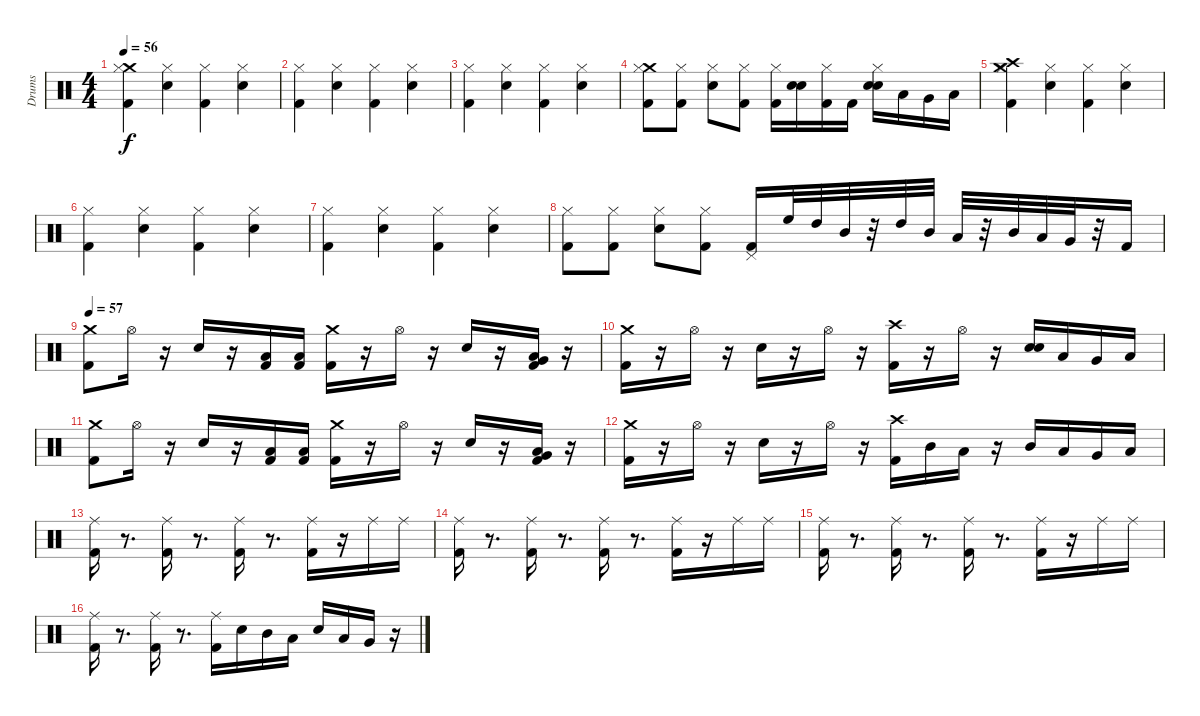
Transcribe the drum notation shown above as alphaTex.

\track ("Drums" "Drums") {instrument percussion}
\staff {score}
\articulation defaults
\ts (4 4)
\tempo 56
\clef neutral
\ks c
("Crash medium (hit)" "Hi-Hat (closed)" "Kick (hit) 2").4{dy f} ("Hi-Hat (closed)" "Snare (hit) 2").4 ("Hi-Hat (closed)" "Kick (hit) 2").4 ("Hi-Hat (closed)" "Snare (hit) 2").4 |
("Hi-Hat (closed)" "Kick (hit) 2").4 ("Hi-Hat (closed)" "Snare (hit) 2").4 ("Hi-Hat (closed)" "Kick (hit) 2").4 ("Hi-Hat (closed)" "Snare (hit) 2").4 |
("Hi-Hat (closed)" "Kick (hit) 2").4 ("Hi-Hat (closed)" "Snare (hit) 2").4 ("Hi-Hat (closed)" "Kick (hit) 2").4 ("Hi-Hat (closed)" "Snare (hit) 2").4 |
("Crash medium (hit)" "Kick (hit) 2" "Hi-Hat (closed)").8 ("Kick (hit) 2" "Hi-Hat (closed)").8 ("Snare (hit) 2" "Hi-Hat (closed)").8 ("Kick (hit) 2" "Hi-Hat (closed)").8 ("Hi-Hat (closed)" "Kick (hit) 2").16 ("Snare (hit) 2" "Electric Snare (hit)").16 ("Hi-Hat (closed)" "Kick (hit) 2").16 "Kick (hit) 2".16 ("Hi-Hat (closed)" "Snare (hit) 2" "Electric Snare (hit)").16 "Low Tom (hit)".16 "Very Low Tom (hit)".16 "Low Floor Tom (hit)".16 |
("Crash high (hit)" "Crash medium (hit)" "Hi-Hat (closed)" "Kick (hit) 2").4 ("Hi-Hat (closed)" "Snare (hit) 2").4 ("Hi-Hat (closed)" "Kick (hit) 2").4 ("Hi-Hat (closed)" "Snare (hit) 2").4 |
("Hi-Hat (closed)" "Kick (hit) 2").4 ("Hi-Hat (closed)" "Snare (hit) 2").4 ("Hi-Hat (closed)" "Kick (hit) 2").4 ("Hi-Hat (closed)" "Snare (hit) 2").4 |
("Hi-Hat (closed)" "Kick (hit) 2").4 ("Hi-Hat (closed)" "Snare (hit) 2").4 ("Hi-Hat (closed)" "Kick (hit) 2").4 ("Hi-Hat (closed)" "Snare (hit) 2").4 |
("Kick (hit) 2" "Hi-Hat (closed)").8 ("Kick (hit) 2" "Hi-Hat (closed)").8 ("Snare (hit) 2" "Hi-Hat (closed)").8 ("Kick (hit) 2" "Hi-Hat (closed)").8 ("Pedal Hi-Hat (hit)" "Kick (hit) 2").16 "High Floor Tom (hit)".32 "High Tom (hit)".32 "Mid Tom (hit)".32 r.32 "High Tom (hit)".32 "Mid Tom (hit)".32 "Low Tom (hit)".32 r.32 "Mid Tom (hit)".32 "Low Tom (hit)".32 "Very Low Tom (hit)".32 r.32 "Kick (hit) 2".16 |
\tempo 57
("Crash medium (hit)" "Kick (hit) 2").8 "Hi-Hat (open)".16 r.16 "Snare (hit) 2".16 r.16 ("Low Tom (hit)" "Kick (hit) 2").16 ("Low Tom (hit)" "Kick (hit) 2").16 ("Kick (hit) 2" "Crash medium (hit)").16 r.16 "Hi-Hat (open)".16 r.16 "Snare (hit) 2".16 r.16 ("Kick (hit) 2" "Very Low Tom (hit)" "Low Tom (hit)").16 r.16 |
("Crash medium (hit)" "Kick (hit) 2").16 r.16 "Hi-Hat (open)".16 r.16 "Snare (hit) 2".16 r.16 "Hi-Hat (open)".16 r.16 ("Crash high (hit)" "Kick (hit) 2").16 r.16 "Hi-Hat (open)".16 r.16 ("Electric Snare (hit)" "Snare (hit) 2").16 "Low Tom (hit)".16 "Very Low Tom (hit)".16 "Low Floor Tom (hit)".16 |
("Crash medium (hit)" "Kick (hit) 2").8 "Hi-Hat (open)".16 r.16 "Snare (hit) 2".16 r.16 ("Low Tom (hit)" "Kick (hit) 2").16 ("Low Tom (hit)" "Kick (hit) 2").16 ("Kick (hit) 2" "Crash medium (hit)").16 r.16 "Hi-Hat (open)".16 r.16 "Snare (hit) 2".16 r.16 ("Kick (hit) 2" "Very Low Tom (hit)" "Low Tom (hit)").16 r.16 |
("Crash medium (hit)" "Kick (hit) 2").16 r.16 "Hi-Hat (open)".16 r.16 "Snare (hit) 2".16 r.16 "Hi-Hat (open)".16 r.16 ("Crash high (hit)" "Kick (hit) 2").16 "Mid Tom (hit)".16 "Low Tom (hit)".16 r.16 "Mid Tom (hit)".16 "Low Tom (hit)".16 "Very Low Tom (hit)".16 "Low Floor Tom (hit)".16 |
("Ride (middle)" "Kick (hit) 2").16 r.8{d} ("Ride (middle)" "Kick (hit) 2").16 r.8{d} ("Ride (middle)" "Kick (hit) 2").16 r.8{d} ("Ride (middle)" "Kick (hit) 2").16 r.16 "Ride (middle)".16 "Ride (middle)".16 |
("Ride (middle)" "Kick (hit) 2").16 r.8{d} ("Ride (middle)" "Kick (hit) 2").16 r.8{d} ("Ride (middle)" "Kick (hit) 2").16 r.8{d} ("Ride (middle)" "Kick (hit) 2").16 r.16 "Ride (middle)".16 "Ride (middle)".16 |
("Ride (middle)" "Kick (hit) 2").16 r.8{d} ("Ride (middle)" "Kick (hit) 2").16 r.8{d} ("Ride (middle)" "Kick (hit) 2").16 r.8{d} ("Ride (middle)" "Kick (hit) 2").16 r.16 "Ride (middle)".16 "Ride (middle)".16 |
("Ride (middle)" "Kick (hit) 2").16 r.8{d} ("Ride (middle)" "Kick (hit) 2").16 r.8{d} ("Ride (middle)" "Kick (hit) 2").16 "Snare (hit) 2".16 "Mid Tom (hit)".16 "Low Tom (hit)".16 "Snare (hit) 2".16 "Low Tom (hit)".16 "Very Low Tom (hit)".16 r.16
